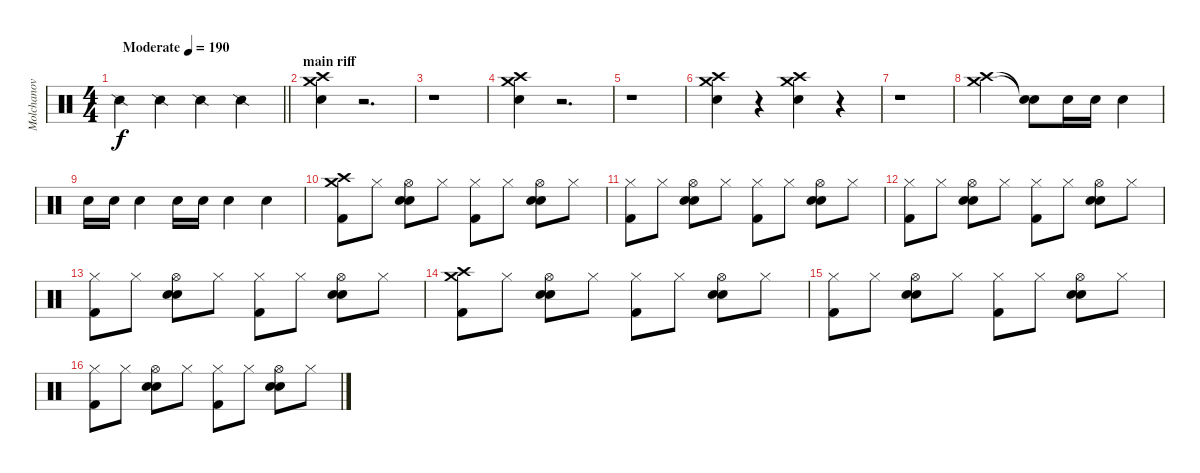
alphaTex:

\track ("Molchanov" "Molchanov") {instrument percussion}
\staff {score}
\articulation defaults
\ts (4 4)
\tempo (190 "Moderate")
\clef neutral
\barLineRight lightlight
\ks c "Snare (side stick) 2".4{dy f} "Snare (side stick) 2".4 "Snare (side stick) 2".4 "Snare (side stick) 2".4
|
\section ("" "main riff")
("Crash high (hit)" "Crash medium (hit)" "Snare (hit) 2").4 r.2{d} |
r.1 |
("Crash high (hit)" "Crash medium (hit)" "Snare (hit) 2").4 r.2{d} |
r.1 |
("Crash high (hit)" "Crash medium (hit)" "Snare (hit) 2").4 r.4 ("Crash high (hit)" "Crash medium (hit)" "Snare (hit) 2").4 r.4 |
r.1 |
("Crash high (hit)" "Crash medium (hit)").2 ("Snare (hit)"{t} "Snare (hit)"{t}).8 "Snare (hit) 2".16 "Snare (hit) 2".16 "Snare (hit) 2".4 |
"Snare (hit) 2".16 "Snare (hit) 2".16 "Snare (hit) 2".4 "Snare (hit) 2".16 "Snare (hit) 2".16 "Snare (hit) 2".4 "Snare (hit) 2".4 |
("Crash high (hit)" "Crash medium (hit)" "Kick (hit) 2").8 "Hi-Hat (closed)".8 ("Hi-Hat (open)" "Electric Snare (hit)" "Snare (hit) 2").8 "Hi-Hat (closed)".8 ("Hi-Hat (closed)" "Kick (hit) 2").8 "Hi-Hat (closed)".8 ("Hi-Hat (open)" "Electric Snare (hit)" "Snare (hit) 2").8 "Hi-Hat (closed)".8 |
("Hi-Hat (closed)" "Kick (hit) 2").8 "Hi-Hat (closed)".8 ("Hi-Hat (open)" "Electric Snare (hit)" "Snare (hit) 2").8 "Hi-Hat (closed)".8 ("Hi-Hat (closed)" "Kick (hit) 2").8 "Hi-Hat (closed)".8 ("Hi-Hat (open)" "Electric Snare (hit)" "Snare (hit) 2").8 "Hi-Hat (closed)".8 |
("Hi-Hat (closed)" "Kick (hit) 2").8 "Hi-Hat (closed)".8 ("Hi-Hat (open)" "Snare (hit) 2" "Electric Snare (hit)").8 "Hi-Hat (closed)".8 ("Hi-Hat (closed)" "Kick (hit) 2").8 "Hi-Hat (closed)".8 ("Hi-Hat (open)" "Snare (hit) 2" "Electric Snare (hit)").8 "Hi-Hat (closed)".8 |
("Hi-Hat (closed)" "Kick (hit) 2").8 "Hi-Hat (closed)".8 ("Hi-Hat (open)" "Snare (hit) 2" "Electric Snare (hit)").8 "Hi-Hat (closed)".8 ("Hi-Hat (closed)" "Kick (hit) 2").8 "Hi-Hat (closed)".8 ("Hi-Hat (open)" "Snare (hit) 2" "Electric Snare (hit)").8 "Hi-Hat (closed)".8 |
("Crash high (hit)" "Crash medium (hit)" "Kick (hit) 2").8 "Hi-Hat (closed)".8 ("Hi-Hat (open)" "Snare (hit) 2" "Electric Snare (hit)").8 "Hi-Hat (closed)".8 ("Hi-Hat (closed)" "Kick (hit) 2").8 "Hi-Hat (closed)".8 ("Hi-Hat (open)" "Snare (hit) 2" "Electric Snare (hit)").8 "Hi-Hat (closed)".8 |
("Hi-Hat (closed)" "Kick (hit) 2").8 "Hi-Hat (closed)".8 ("Hi-Hat (open)" "Snare (hit) 2" "Electric Snare (hit)").8 "Hi-Hat (closed)".8 ("Hi-Hat (closed)" "Kick (hit) 2").8 "Hi-Hat (closed)".8 ("Hi-Hat (open)" "Snare (hit) 2" "Electric Snare (hit)").8 "Hi-Hat (closed)".8 |
("Hi-Hat (closed)" "Kick (hit) 2").8 "Hi-Hat (closed)".8 ("Hi-Hat (open)" "Snare (hit) 2" "Electric Snare (hit)").8 "Hi-Hat (closed)".8 ("Hi-Hat (closed)" "Kick (hit) 2").8 "Hi-Hat (closed)".8 ("Hi-Hat (open)" "Snare (hit) 2" "Electric Snare (hit)").8 "Hi-Hat (closed)".8
